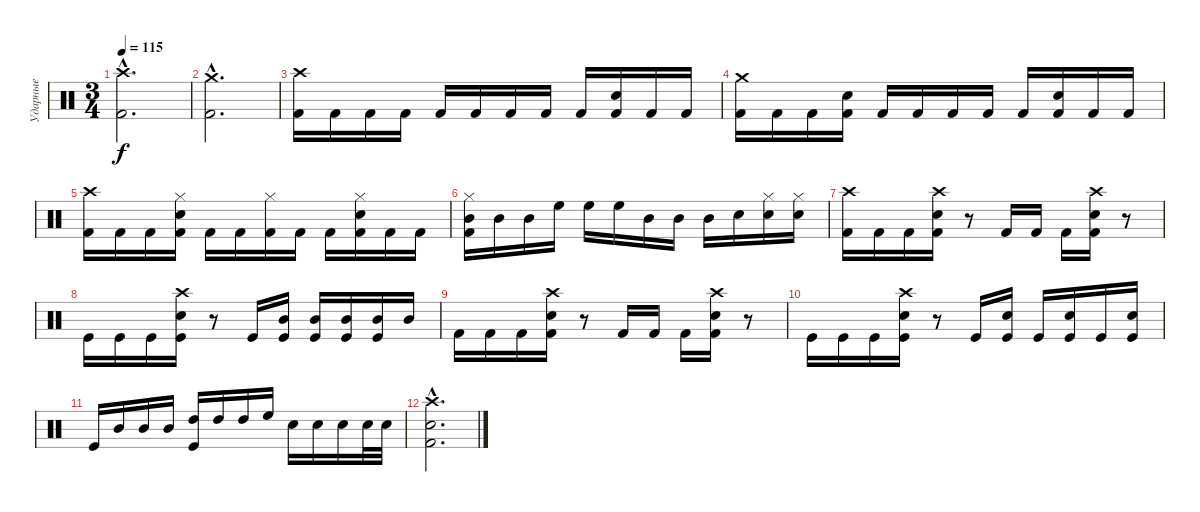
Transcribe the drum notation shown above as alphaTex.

\track ("Ударные" "Ударные") {instrument percussion}
\staff {score}
\articulation defaults
\ts (3 4)
\tempo 115
\clef neutral
\ks c
("Crash high (hit)"{hac} "Kick (hit) 2"{hac}).2{d dy f} |
("Crash medium (hit)"{hac} "Kick (hit) 2"{hac}).2{d} |
("Crash high (hit)" "Kick (hit) 2").16 "Kick (hit) 2".16 "Kick (hit) 2".16 "Kick (hit) 2".16 "Kick (hit) 2".16 "Kick (hit) 2".16 "Kick (hit) 2".16 "Kick (hit) 2".16 "Kick (hit) 2".16 ("Electric Snare (hit)" "Kick (hit) 2").16 "Kick (hit) 2".16 "Kick (hit) 2".16 |
("Crash medium (hit)" "Kick (hit) 2").16 "Kick (hit) 2".16 "Kick (hit) 2".16 ("Electric Snare (hit)" "Kick (hit) 2").16 "Kick (hit) 2".16 "Kick (hit) 2".16 "Kick (hit) 2".16 "Kick (hit) 2".16 "Kick (hit) 2".16 ("Electric Snare (hit)" "Kick (hit) 2").16 "Kick (hit) 2".16 "Kick (hit) 2".16 |
("Crash high (hit)" "Kick (hit) 2").16 "Kick (hit) 2".16 "Kick (hit) 2".16 ("Hi-Hat (closed)" "Electric Snare (hit)" "Kick (hit) 2").16 "Kick (hit) 2".16 "Kick (hit) 2".16 ("Hi-Hat (closed)" "Kick (hit) 2").16 "Kick (hit) 2".16 "Kick (hit) 2".16 ("Hi-Hat (closed)" "Electric Snare (hit)" "Kick (hit) 2").16 "Kick (hit) 2".16 "Kick (hit) 2".16 |
("Hi-Hat (closed)" "Mid Tom (hit)" "Kick (hit) 2").16 "Mid Tom (hit)".16 "Mid Tom (hit)".16 "High Floor Tom (hit)".16 "High Floor Tom (hit)".16 "High Floor Tom (hit)".16 "Mid Tom (hit)".16 "Mid Tom (hit)".16 "Mid Tom (hit)".16 "Electric Snare (hit)".16 ("Hi-Hat (closed)" "Electric Snare (hit)").16 ("Hi-Hat (closed)" "Electric Snare (hit)").16 |
("Crash high (hit)" "Kick (hit) 2").16 "Kick (hit) 2".16 "Kick (hit) 2".16 ("Crash high (hit)" "Electric Snare (hit)" "Kick (hit) 2").16 r.8 "Kick (hit) 2".16 "Kick (hit) 2".16 "Kick (hit) 2".16 ("Crash high (hit)" "Electric Snare (hit)" "Kick (hit) 2").16 r.8 |
"Kick (hit)".16 "Kick (hit)".16 "Kick (hit)".16 ("Crash high (hit)" "Electric Snare (hit)" "Kick (hit)").16 r.8 "Kick (hit)".16 ("Mid Tom (hit)" "Kick (hit)").16 ("Mid Tom (hit)" "Kick (hit)").16 ("Mid Tom (hit)" "Kick (hit)").16 ("Mid Tom (hit)" "Kick (hit)").16 "Mid Tom (hit)".16 |
"Kick (hit) 2".16 "Kick (hit) 2".16 "Kick (hit) 2".16 ("Crash high (hit)" "Electric Snare (hit)" "Kick (hit) 2").16 r.8 "Kick (hit) 2".16 "Kick (hit) 2".16 "Kick (hit) 2".16 ("Crash high (hit)" "Electric Snare (hit)" "Kick (hit) 2").16 r.8 |
"Kick (hit)".16 "Kick (hit)".16 "Kick (hit)".16 ("Crash high (hit)" "Electric Snare (hit)" "Kick (hit)").16 r.8 "Kick (hit)".16 ("Electric Snare (hit)" "Kick (hit)").16 "Kick (hit)".16 ("Electric Snare (hit)" "Kick (hit)").16 "Kick (hit)".16 ("Electric Snare (hit)" "Kick (hit)").16 |
"Kick (hit)".16 "Mid Tom (hit)".16 "Mid Tom (hit)".16 "Mid Tom (hit)".16 ("High Tom (hit)" "Kick (hit)").16 "High Tom (hit)".16 "High Tom (hit)".16 "High Floor Tom (hit)".16 "Electric Snare (hit)".16 "Electric Snare (hit)".16 "Electric Snare (hit)".16 "Electric Snare (hit)".32 "Electric Snare (hit)".32 |
("Crash high (hit)"{hac} "Electric Snare (hit)"{hac} "Kick (hit) 2"{hac}).2{d}
